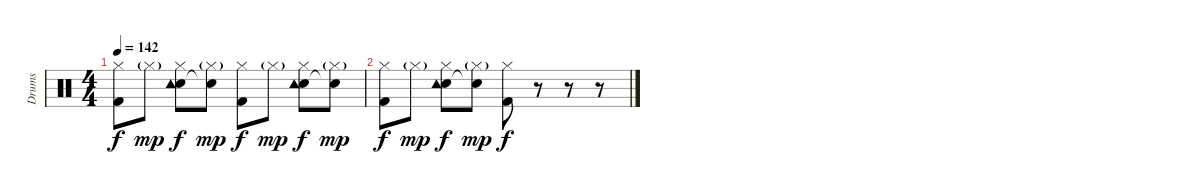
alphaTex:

\track ("Drums" "Drums") {instrument percussion}
\staff {score}
\articulation defaults
\ts (4 4)
\tempo 142
\clef neutral
\ks c
("Hi-Hat (closed)" "Kick (hit) 2").8{dy f} "Hi-Hat (closed)"{g}.8{dy mp} ("Hi-Hat (closed)" "Snare (hit) 2" "Tambourine (hit)").8{dy f} ("Hi-Hat (closed)"{g} "Snare (hit)"{t}).8{dy mp} ("Hi-Hat (closed)" "Kick (hit) 2").8{dy f} "Hi-Hat (closed)"{g}.8{dy mp} ("Hi-Hat (closed)" "Snare (hit) 2" "Tambourine (hit)").8{dy f} ("Hi-Hat (closed)"{g} "Snare (hit)"{t}).8{dy mp} |
("Hi-Hat (closed)" "Kick (hit) 2").8{dy f} "Hi-Hat (closed)"{g}.8{dy mp} ("Hi-Hat (closed)" "Snare (hit) 2" "Tambourine (hit)").8{dy f} ("Hi-Hat (closed)"{g} "Snare (hit)"{t}).8{dy mp} ("Hi-Hat (closed)" "Kick (hit) 2").8{dy f} r.8 r.8 r.8
